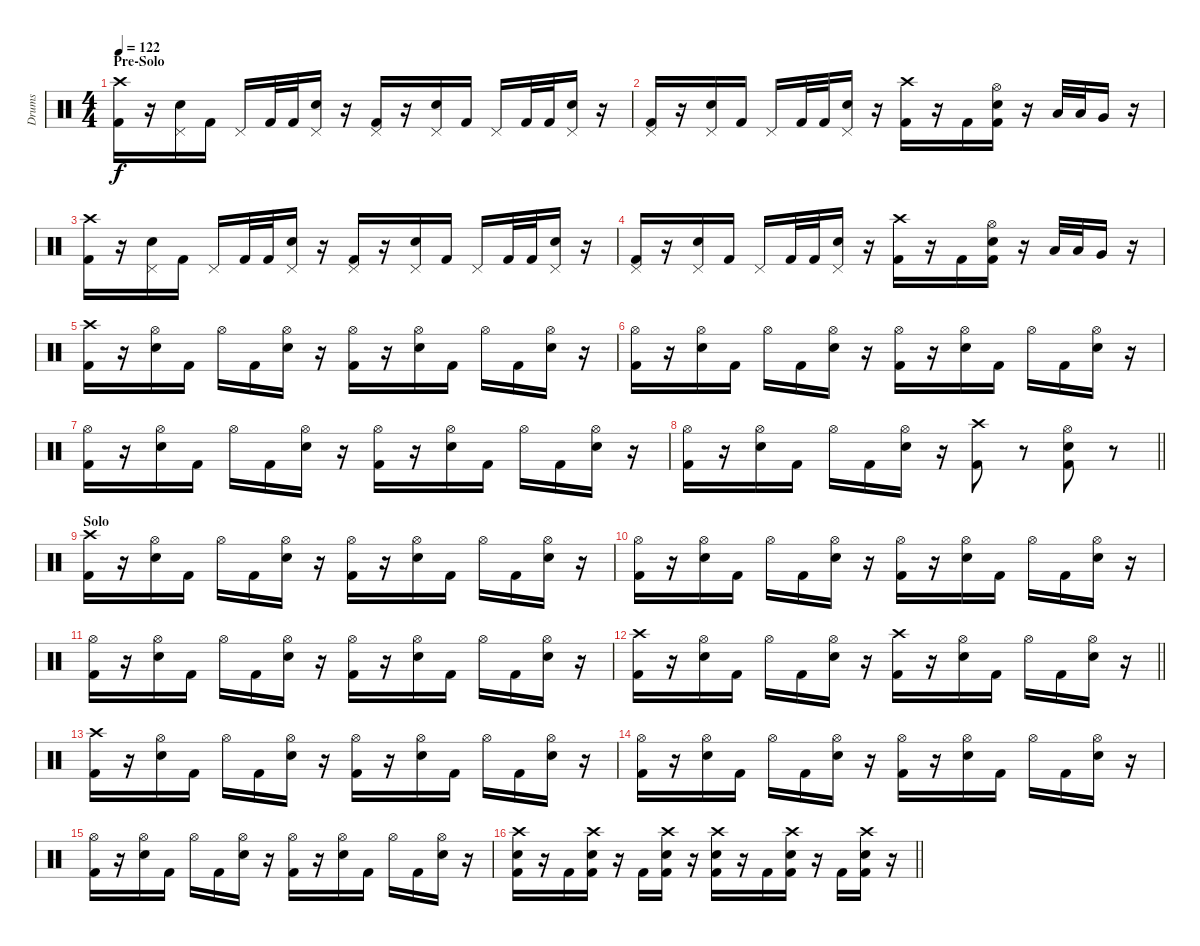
\track ("Drums" "Drums") {instrument percussion}
\staff {score}
\articulation defaults
\ts (4 4)
\section ("" "Pre-Solo")
\tempo 122
\clef neutral
\ks c
("Crash high (hit)" "Kick (hit) 2").16{dy f} r.16 ("Pedal Hi-Hat (hit)" "Snare (hit) 2").16 "Kick (hit) 2".16 "Pedal Hi-Hat (hit)".16 "Kick (hit) 2".32 "Kick (hit) 2".32 ("Pedal Hi-Hat (hit)" "Snare (hit) 2").16 r.16 ("Pedal Hi-Hat (hit)" "Kick (hit) 2").16 r.16 ("Pedal Hi-Hat (hit)" "Snare (hit) 2").16 "Kick (hit) 2".16 "Pedal Hi-Hat (hit)".16 "Kick (hit) 2".32 "Kick (hit) 2".32 ("Pedal Hi-Hat (hit)" "Snare (hit) 2").16 r.16 |
("Pedal Hi-Hat (hit)" "Kick (hit) 2").16 r.16 ("Pedal Hi-Hat (hit)" "Snare (hit) 2").16 "Kick (hit) 2".16 "Pedal Hi-Hat (hit)".16 "Kick (hit) 2".32 "Kick (hit) 2".32 ("Pedal Hi-Hat (hit)" "Snare (hit) 2").16 r.16 ("Crash high (hit)" "Kick (hit) 2").16 r.16 "Kick (hit) 2".16 ("Hi-Hat (open)" "Snare (hit) 2" "Kick (hit) 2").16 r.16 "Low Tom (hit)".32 "Low Tom (hit)".32 "Very Low Tom (hit)".16 r.16 |
("Crash high (hit)" "Kick (hit) 2").16 r.16 ("Pedal Hi-Hat (hit)" "Snare (hit) 2").16 "Kick (hit) 2".16 "Pedal Hi-Hat (hit)".16 "Kick (hit) 2".32 "Kick (hit) 2".32 ("Pedal Hi-Hat (hit)" "Snare (hit) 2").16 r.16 ("Pedal Hi-Hat (hit)" "Kick (hit) 2").16 r.16 ("Pedal Hi-Hat (hit)" "Snare (hit) 2").16 "Kick (hit) 2".16 "Pedal Hi-Hat (hit)".16 "Kick (hit) 2".32 "Kick (hit) 2".32 ("Pedal Hi-Hat (hit)" "Snare (hit) 2").16 r.16 |
("Pedal Hi-Hat (hit)" "Kick (hit) 2").16 r.16 ("Pedal Hi-Hat (hit)" "Snare (hit) 2").16 "Kick (hit) 2".16 "Pedal Hi-Hat (hit)".16 "Kick (hit) 2".32 "Kick (hit) 2".32 ("Pedal Hi-Hat (hit)" "Snare (hit) 2").16 r.16 ("Crash high (hit)" "Kick (hit) 2").16 r.16 "Kick (hit) 2".16 ("Hi-Hat (open)" "Snare (hit) 2" "Kick (hit) 2").16 r.16 "Low Tom (hit)".32 "Low Tom (hit)".32 "Very Low Tom (hit)".16 r.16 |
("Crash high (hit)" "Kick (hit) 2").16 r.16 ("Hi-Hat (open)" "Snare (hit) 2").16 "Kick (hit) 2".16 "Hi-Hat (open)".16 "Kick (hit) 2".16 ("Hi-Hat (open)" "Snare (hit) 2").16 r.16 ("Hi-Hat (open)" "Kick (hit) 2").16 r.16 ("Hi-Hat (open)" "Snare (hit) 2").16 "Kick (hit) 2".16 "Hi-Hat (open)".16 "Kick (hit) 2".16 ("Hi-Hat (open)" "Snare (hit) 2").16 r.16 |
("Hi-Hat (open)" "Kick (hit) 2").16 r.16 ("Hi-Hat (open)" "Snare (hit) 2").16 "Kick (hit) 2".16 "Hi-Hat (open)".16 "Kick (hit) 2".16 ("Hi-Hat (open)" "Snare (hit) 2").16 r.16 ("Hi-Hat (open)" "Kick (hit) 2").16 r.16 ("Hi-Hat (open)" "Snare (hit) 2").16 "Kick (hit) 2".16 "Hi-Hat (open)".16 "Kick (hit) 2".16 ("Hi-Hat (open)" "Snare (hit) 2").16 r.16 |
("Hi-Hat (open)" "Kick (hit) 2").16 r.16 ("Hi-Hat (open)" "Snare (hit) 2").16 "Kick (hit) 2".16 "Hi-Hat (open)".16 "Kick (hit) 2".16 ("Hi-Hat (open)" "Snare (hit) 2").16 r.16 ("Hi-Hat (open)" "Kick (hit) 2").16 r.16 ("Hi-Hat (open)" "Snare (hit) 2").16 "Kick (hit) 2".16 "Hi-Hat (open)".16 "Kick (hit) 2".16 ("Hi-Hat (open)" "Snare (hit) 2").16 r.16 |
\barLineRight lightlight
("Hi-Hat (open)" "Kick (hit) 2").16 r.16 ("Hi-Hat (open)" "Snare (hit) 2").16 "Kick (hit) 2".16 "Hi-Hat (open)".16 "Kick (hit) 2".16 ("Hi-Hat (open)" "Snare (hit) 2").16 r.16 ("Crash high (hit)" "Kick (hit) 2").8 r.8 ("Hi-Hat (open)" "Snare (hit) 2" "Kick (hit) 2").8 r.8 |
\section ("" "Solo")
("Crash high (hit)" "Kick (hit) 2").16 r.16 ("Hi-Hat (open)" "Snare (hit) 2").16 "Kick (hit) 2".16 "Hi-Hat (open)".16 "Kick (hit) 2".16 ("Hi-Hat (open)" "Snare (hit) 2").16 r.16 ("Hi-Hat (open)" "Kick (hit) 2").16 r.16 ("Hi-Hat (open)" "Snare (hit) 2").16 "Kick (hit) 2".16 "Hi-Hat (open)".16 "Kick (hit) 2".16 ("Hi-Hat (open)" "Snare (hit) 2").16 r.16 |
("Hi-Hat (open)" "Kick (hit) 2").16 r.16 ("Hi-Hat (open)" "Snare (hit) 2").16 "Kick (hit) 2".16 "Hi-Hat (open)".16 "Kick (hit) 2".16 ("Hi-Hat (open)" "Snare (hit) 2").16 r.16 ("Hi-Hat (open)" "Kick (hit) 2").16 r.16 ("Hi-Hat (open)" "Snare (hit) 2").16 "Kick (hit) 2".16 "Hi-Hat (open)".16 "Kick (hit) 2".16 ("Hi-Hat (open)" "Snare (hit) 2").16 r.16 |
("Hi-Hat (open)" "Kick (hit) 2").16 r.16 ("Hi-Hat (open)" "Snare (hit) 2").16 "Kick (hit) 2".16 "Hi-Hat (open)".16 "Kick (hit) 2".16 ("Hi-Hat (open)" "Snare (hit) 2").16 r.16 ("Hi-Hat (open)" "Kick (hit) 2").16 r.16 ("Hi-Hat (open)" "Snare (hit) 2").16 "Kick (hit) 2".16 "Hi-Hat (open)".16 "Kick (hit) 2".16 ("Hi-Hat (open)" "Snare (hit) 2").16 r.16 |
\barLineRight lightlight
("Crash high (hit)" "Kick (hit) 2").16 r.16 ("Hi-Hat (open)" "Snare (hit) 2").16 "Kick (hit) 2".16 "Hi-Hat (open)".16 "Kick (hit) 2".16 ("Hi-Hat (open)" "Snare (hit) 2").16 r.16 ("Crash high (hit)" "Kick (hit) 2").16 r.16 ("Hi-Hat (open)" "Snare (hit) 2").16 "Kick (hit) 2".16 "Hi-Hat (open)".16 "Kick (hit) 2".16 ("Hi-Hat (open)" "Snare (hit) 2").16 r.16 |
("Crash high (hit)" "Kick (hit) 2").16 r.16 ("Hi-Hat (open)" "Snare (hit) 2").16 "Kick (hit) 2".16 "Hi-Hat (open)".16 "Kick (hit) 2".16 ("Hi-Hat (open)" "Snare (hit) 2").16 r.16 ("Hi-Hat (open)" "Kick (hit) 2").16 r.16 ("Hi-Hat (open)" "Snare (hit) 2").16 "Kick (hit) 2".16 "Hi-Hat (open)".16 "Kick (hit) 2".16 ("Hi-Hat (open)" "Snare (hit) 2").16 r.16 |
("Hi-Hat (open)" "Kick (hit) 2").16 r.16 ("Hi-Hat (open)" "Snare (hit) 2").16 "Kick (hit) 2".16 "Hi-Hat (open)".16 "Kick (hit) 2".16 ("Hi-Hat (open)" "Snare (hit) 2").16 r.16 ("Hi-Hat (open)" "Kick (hit) 2").16 r.16 ("Hi-Hat (open)" "Snare (hit) 2").16 "Kick (hit) 2".16 "Hi-Hat (open)".16 "Kick (hit) 2".16 ("Hi-Hat (open)" "Snare (hit) 2").16 r.16 |
("Hi-Hat (open)" "Kick (hit) 2").16 r.16 ("Hi-Hat (open)" "Snare (hit) 2").16 "Kick (hit) 2".16 "Hi-Hat (open)".16 "Kick (hit) 2".16 ("Hi-Hat (open)" "Snare (hit) 2").16 r.16 ("Hi-Hat (open)" "Kick (hit) 2").16 r.16 ("Hi-Hat (open)" "Snare (hit) 2").16 "Kick (hit) 2".16 "Hi-Hat (open)".16 "Kick (hit) 2".16 ("Hi-Hat (open)" "Snare (hit) 2").16 r.16 |
\barLineRight lightlight
("Crash high (hit)" "Snare (hit) 2" "Kick (hit) 2").16 r.16 "Kick (hit) 2".16 ("Crash high (hit)" "Snare (hit) 2" "Kick (hit) 2").16 r.16 "Kick (hit) 2".16 ("Crash high (hit)" "Snare (hit) 2" "Kick (hit) 2").16 r.16 ("Crash high (hit)" "Snare (hit) 2" "Kick (hit) 2").16 r.16 "Kick (hit) 2".16 ("Crash high (hit)" "Snare (hit) 2" "Kick (hit) 2").16 r.16 "Kick (hit) 2".16 ("Crash high (hit)" "Snare (hit) 2" "Kick (hit) 2").16 r.16
